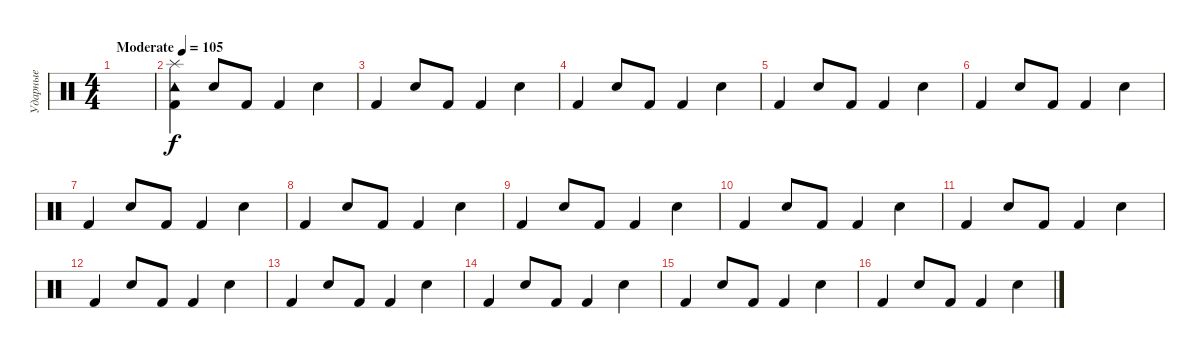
\track ("Ударные" "Ударные") {instrument percussion}
\staff {score}
\articulation defaults
\ts (4 4)
\tempo (105 "Moderate")
\clef neutral
\ks c
|
("Tambourine (hit)" "Kick (hit) 2" "Splash (hit)").4 "Snare (hit) 2".8 "Kick (hit) 2".8 "Kick (hit) 2".4 "Snare (hit) 2".4 |
"Kick (hit) 2".4 "Snare (hit) 2".8 "Kick (hit) 2".8 "Kick (hit) 2".4 "Snare (hit) 2".4 |
"Kick (hit) 2".4 "Snare (hit) 2".8 "Kick (hit) 2".8 "Kick (hit) 2".4 "Snare (hit) 2".4 |
"Kick (hit) 2".4 "Snare (hit) 2".8 "Kick (hit) 2".8 "Kick (hit) 2".4 "Snare (hit) 2".4 |
"Kick (hit) 2".4 "Snare (hit) 2".8 "Kick (hit) 2".8 "Kick (hit) 2".4 "Snare (hit) 2".4 |
"Kick (hit) 2".4 "Snare (hit) 2".8 "Kick (hit) 2".8 "Kick (hit) 2".4 "Snare (hit) 2".4 |
"Kick (hit) 2".4 "Snare (hit) 2".8 "Kick (hit) 2".8 "Kick (hit) 2".4 "Snare (hit) 2".4 |
"Kick (hit) 2".4 "Snare (hit) 2".8 "Kick (hit) 2".8 "Kick (hit) 2".4 "Snare (hit) 2".4 |
"Kick (hit) 2".4 "Snare (hit) 2".8 "Kick (hit) 2".8 "Kick (hit) 2".4 "Snare (hit) 2".4 |
"Kick (hit) 2".4 "Snare (hit) 2".8 "Kick (hit) 2".8 "Kick (hit) 2".4 "Snare (hit) 2".4 |
"Kick (hit) 2".4 "Snare (hit) 2".8 "Kick (hit) 2".8 "Kick (hit) 2".4 "Snare (hit) 2".4 |
"Kick (hit) 2".4 "Snare (hit) 2".8 "Kick (hit) 2".8 "Kick (hit) 2".4 "Snare (hit) 2".4 |
"Kick (hit) 2".4 "Snare (hit) 2".8 "Kick (hit) 2".8 "Kick (hit) 2".4 "Snare (hit) 2".4 |
"Kick (hit) 2".4 "Snare (hit) 2".8 "Kick (hit) 2".8 "Kick (hit) 2".4 "Snare (hit) 2".4 |
"Kick (hit) 2".4 "Snare (hit) 2".8 "Kick (hit) 2".8 "Kick (hit) 2".4 "Snare (hit) 2".4
